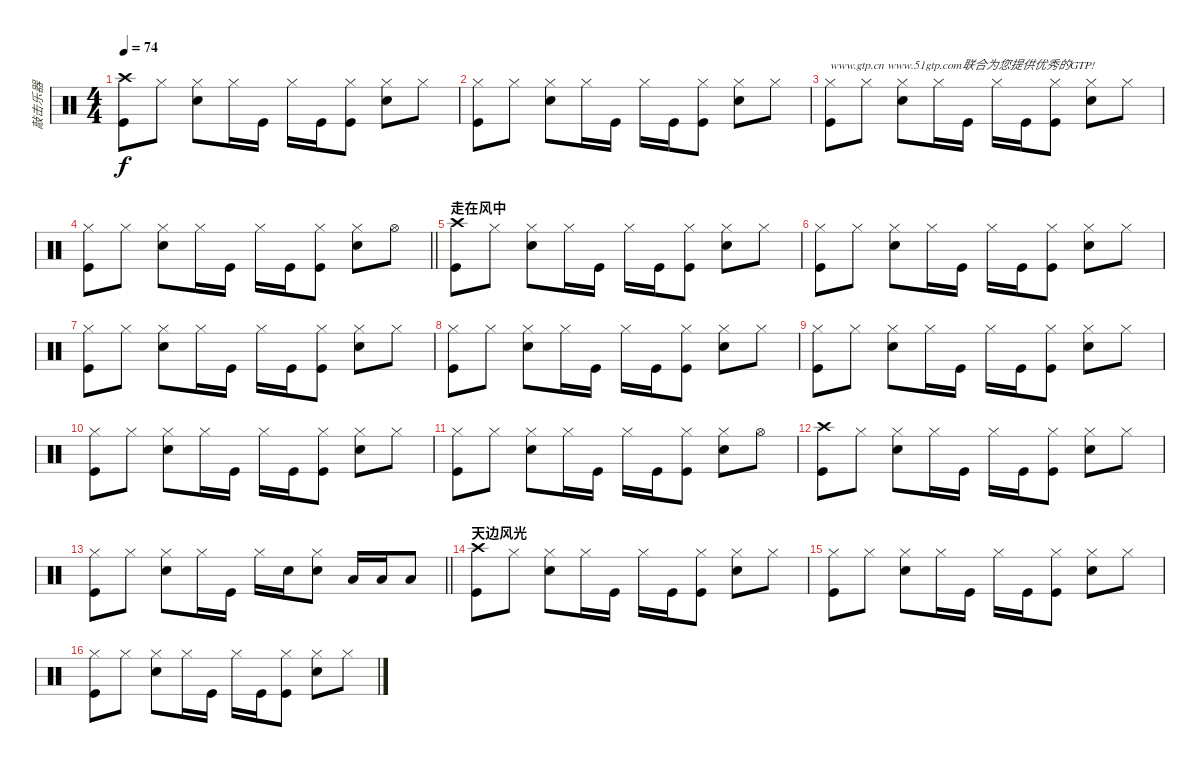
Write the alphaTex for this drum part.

\track ("敲击乐器" "敲击乐器") {instrument percussion}
\staff {score}
\articulation defaults
\ts (4 4)
\tempo 74
\clef neutral
\ks c
("Crash high (hit)" "Kick (hit)").8{dy f} "Hi-Hat (closed)".8 ("Hi-Hat (closed)" "Snare (hit) 2").8 "Hi-Hat (closed)".16 "Kick (hit)".16 "Hi-Hat (closed)".16 "Kick (hit)".16 ("Hi-Hat (closed)" "Kick (hit)").8 ("Hi-Hat (closed)" "Snare (hit) 2").8 "Hi-Hat (closed)".8 |
("Hi-Hat (closed)" "Kick (hit)").8 "Hi-Hat (closed)".8 ("Hi-Hat (closed)" "Snare (hit) 2").8 "Hi-Hat (closed)".16 "Kick (hit)".16 "Hi-Hat (closed)".16 "Kick (hit)".16 ("Hi-Hat (closed)" "Kick (hit)").8 ("Hi-Hat (closed)" "Snare (hit) 2").8 "Hi-Hat (closed)".8 |
("Hi-Hat (closed)" "Kick (hit)").8{txt "www.gtp.cn www.51gtp.com联合为您提供优秀的GTP!"} "Hi-Hat (closed)".8 ("Hi-Hat (closed)" "Snare (hit) 2").8 "Hi-Hat (closed)".16 "Kick (hit)".16 "Hi-Hat (closed)".16 "Kick (hit)".16 ("Hi-Hat (closed)" "Kick (hit)").8 ("Hi-Hat (closed)" "Snare (hit) 2").8 "Hi-Hat (closed)".8 |
\barLineRight lightlight
("Hi-Hat (closed)" "Kick (hit)").8 "Hi-Hat (closed)".8 ("Hi-Hat (closed)" "Snare (hit) 2").8 "Hi-Hat (closed)".16 "Kick (hit)".16 "Hi-Hat (closed)".16 "Kick (hit)".16 ("Hi-Hat (closed)" "Kick (hit)").8 ("Hi-Hat (closed)" "Snare (hit) 2").8 "Hi-Hat (open)".8 |
\section ("" "走在风中")
("Crash high (hit)" "Kick (hit)").8 "Hi-Hat (closed)".8 ("Hi-Hat (closed)" "Snare (hit) 2").8 "Hi-Hat (closed)".16 "Kick (hit)".16 "Hi-Hat (closed)".16 "Kick (hit)".16 ("Hi-Hat (closed)" "Kick (hit)").8 ("Hi-Hat (closed)" "Snare (hit) 2").8 "Hi-Hat (closed)".8 |
("Hi-Hat (closed)" "Kick (hit)").8 "Hi-Hat (closed)".8 ("Hi-Hat (closed)" "Snare (hit) 2").8 "Hi-Hat (closed)".16 "Kick (hit)".16 "Hi-Hat (closed)".16 "Kick (hit)".16 ("Hi-Hat (closed)" "Kick (hit)").8 ("Hi-Hat (closed)" "Snare (hit) 2").8 "Hi-Hat (closed)".8 |
("Hi-Hat (closed)" "Kick (hit)").8 "Hi-Hat (closed)".8 ("Hi-Hat (closed)" "Snare (hit) 2").8 "Hi-Hat (closed)".16 "Kick (hit)".16 "Hi-Hat (closed)".16 "Kick (hit)".16 ("Hi-Hat (closed)" "Kick (hit)").8 ("Hi-Hat (closed)" "Snare (hit) 2").8 "Hi-Hat (closed)".8 |
("Hi-Hat (closed)" "Kick (hit)").8 "Hi-Hat (closed)".8 ("Hi-Hat (closed)" "Snare (hit) 2").8 "Hi-Hat (closed)".16 "Kick (hit)".16 "Hi-Hat (closed)".16 "Kick (hit)".16 ("Hi-Hat (closed)" "Kick (hit)").8 ("Hi-Hat (closed)" "Snare (hit) 2").8 "Hi-Hat (closed)".8 |
("Hi-Hat (closed)" "Kick (hit)").8 "Hi-Hat (closed)".8 ("Hi-Hat (closed)" "Snare (hit) 2").8 "Hi-Hat (closed)".16 "Kick (hit)".16 "Hi-Hat (closed)".16 "Kick (hit)".16 ("Hi-Hat (closed)" "Kick (hit)").8 ("Hi-Hat (closed)" "Snare (hit) 2").8 "Hi-Hat (closed)".8 |
("Hi-Hat (closed)" "Kick (hit)").8 "Hi-Hat (closed)".8 ("Hi-Hat (closed)" "Snare (hit) 2").8 "Hi-Hat (closed)".16 "Kick (hit)".16 "Hi-Hat (closed)".16 "Kick (hit)".16 ("Hi-Hat (closed)" "Kick (hit)").8 ("Hi-Hat (closed)" "Snare (hit) 2").8 "Hi-Hat (closed)".8 |
("Hi-Hat (closed)" "Kick (hit)").8 "Hi-Hat (closed)".8 ("Hi-Hat (closed)" "Snare (hit) 2").8 "Hi-Hat (closed)".16 "Kick (hit)".16 "Hi-Hat (closed)".16 "Kick (hit)".16 ("Hi-Hat (closed)" "Kick (hit)").8 ("Hi-Hat (closed)" "Snare (hit) 2").8 "Hi-Hat (open)".8 |
("Crash high (hit)" "Kick (hit)").8 "Hi-Hat (closed)".8 ("Hi-Hat (closed)" "Snare (hit) 2").8 "Hi-Hat (closed)".16 "Kick (hit)".16 "Hi-Hat (closed)".16 "Kick (hit)".16 ("Hi-Hat (closed)" "Kick (hit)").8 ("Hi-Hat (closed)" "Snare (hit) 2").8 "Hi-Hat (closed)".8 |
\barLineRight lightlight
("Hi-Hat (closed)" "Kick (hit)").8 "Hi-Hat (closed)".8 ("Hi-Hat (closed)" "Snare (hit) 2").8 "Hi-Hat (closed)".16 "Kick (hit)".16 "Hi-Hat (closed)".16 "Snare (hit) 2".16 ("Hi-Hat (closed)" "Snare (hit) 2").8 "Low Tom (hit)".16 "Low Tom (hit)".16 "Low Floor Tom (hit)".8 |
\section ("" "天边风光")
("Crash high (hit)" "Kick (hit)").8 "Hi-Hat (closed)".8 ("Hi-Hat (closed)" "Snare (hit) 2").8 "Hi-Hat (closed)".16 "Kick (hit)".16 "Hi-Hat (closed)".16 "Kick (hit)".16 ("Hi-Hat (closed)" "Kick (hit)").8 ("Hi-Hat (closed)" "Snare (hit) 2").8 "Hi-Hat (closed)".8 |
("Hi-Hat (closed)" "Kick (hit)").8 "Hi-Hat (closed)".8 ("Hi-Hat (closed)" "Snare (hit) 2").8 "Hi-Hat (closed)".16 "Kick (hit)".16 "Hi-Hat (closed)".16 "Kick (hit)".16 ("Hi-Hat (closed)" "Kick (hit)").8 ("Hi-Hat (closed)" "Snare (hit) 2").8 "Hi-Hat (closed)".8 |
("Hi-Hat (closed)" "Kick (hit)").8 "Hi-Hat (closed)".8 ("Hi-Hat (closed)" "Snare (hit) 2").8 "Hi-Hat (closed)".16 "Kick (hit)".16 "Hi-Hat (closed)".16 "Kick (hit)".16 ("Hi-Hat (closed)" "Kick (hit)").8 ("Hi-Hat (closed)" "Snare (hit) 2").8 "Hi-Hat (closed)".8
